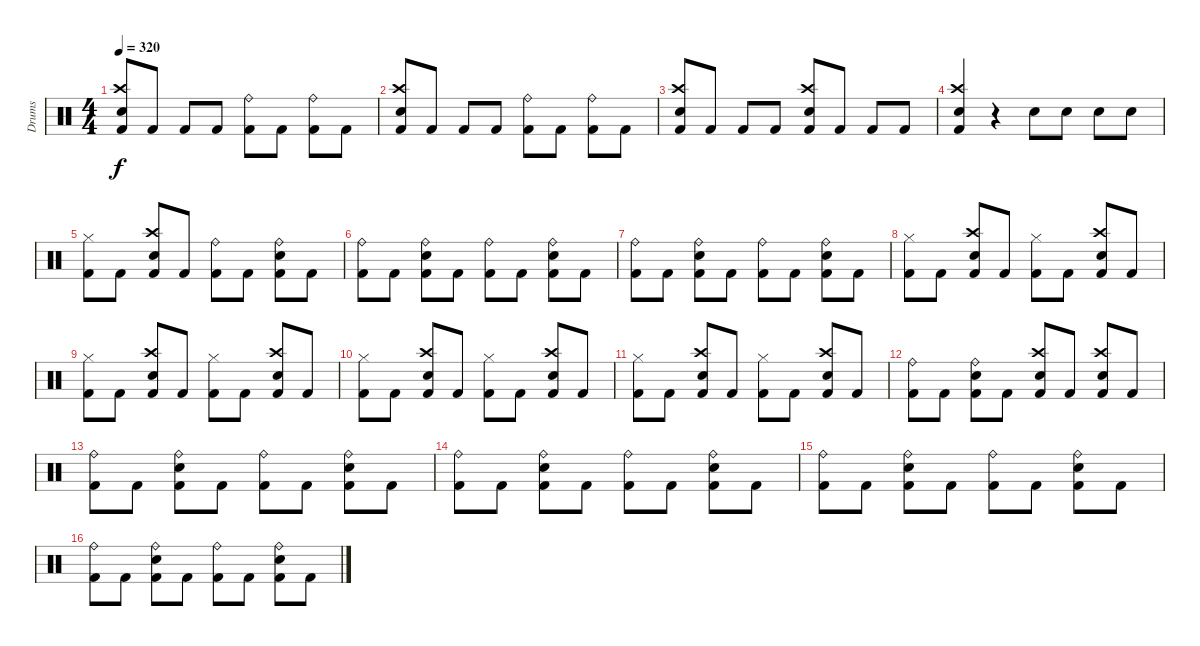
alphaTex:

\track ("Drums" "Drums") {instrument percussion}
\staff {score}
\articulation defaults
\ts (4 4)
\tempo 320
\clef neutral
\ks c
("Kick (hit) 2" "Crash high (hit)" "Snare (hit) 2").8{dy f} "Kick (hit) 2".8 "Kick (hit) 2".8 "Kick (hit) 2".8 ("Kick (hit) 2" "Ride (bell)").8 "Kick (hit) 2".8 ("Ride (bell)" "Kick (hit) 2").8 "Kick (hit) 2".8 |
("Kick (hit) 2" "Snare (hit) 2" "Crash high (hit)").8 "Kick (hit) 2".8 "Kick (hit) 2".8 "Kick (hit) 2".8 ("Kick (hit) 2" "Ride (bell)").8 "Kick (hit) 2".8 ("Ride (bell)" "Kick (hit) 2").8 "Kick (hit) 2".8 |
("Kick (hit) 2" "Crash high (hit)" "Snare (hit) 2").8 "Kick (hit) 2".8 "Kick (hit) 2".8 "Kick (hit) 2".8 ("Kick (hit) 2" "Crash high (hit)" "Snare (hit) 2").8 "Kick (hit) 2".8 "Kick (hit) 2".8 "Kick (hit) 2".8 |
("Kick (hit) 2" "Crash high (hit)" "Snare (hit) 2").4 r.4 "Snare (hit) 2".8 "Snare (hit) 2".8 "Snare (hit) 2".8 "Snare (hit) 2".8 |
("Hi-Hat (closed)" "Kick (hit) 2").8 "Kick (hit) 2".8 ("Kick (hit) 2" "Crash high (hit)" "Snare (hit) 2").8 "Kick (hit) 2".8 ("Kick (hit) 2" "Ride (bell)").8 "Kick (hit) 2".8 ("Snare (hit) 2" "Kick (hit) 2" "Ride (bell)").8 "Kick (hit) 2".8 |
("Ride (bell)" "Kick (hit) 2").8 "Kick (hit) 2".8 ("Ride (bell)" "Snare (hit) 2" "Kick (hit) 2").8 "Kick (hit) 2".8 ("Kick (hit) 2" "Ride (bell)").8 "Kick (hit) 2".8 ("Ride (bell)" "Snare (hit) 2" "Kick (hit) 2").8 "Kick (hit) 2".8 |
("Ride (bell)" "Kick (hit) 2").8 "Kick (hit) 2".8 ("Snare (hit) 2" "Ride (bell)" "Kick (hit) 2").8 "Kick (hit) 2".8 ("Kick (hit) 2" "Ride (bell)").8 "Kick (hit) 2".8 ("Ride (bell)" "Kick (hit) 2" "Snare (hit) 2").8 "Kick (hit) 2".8 |
("Kick (hit) 2" "Hi-Hat (closed)").8 "Kick (hit) 2".8 ("Snare (hit) 2" "Kick (hit) 2" "Crash high (hit)").8 "Kick (hit) 2".8 ("Hi-Hat (closed)" "Kick (hit) 2").8 "Kick (hit) 2".8 ("Snare (hit) 2" "Kick (hit) 2" "Crash high (hit)").8 "Kick (hit) 2".8 |
("Kick (hit) 2" "Hi-Hat (closed)").8 "Kick (hit) 2".8 ("Snare (hit) 2" "Kick (hit) 2" "Crash high (hit)").8 "Kick (hit) 2".8 ("Kick (hit) 2" "Hi-Hat (closed)").8 "Kick (hit) 2".8 ("Kick (hit) 2" "Snare (hit) 2" "Crash high (hit)").8 "Kick (hit) 2".8 |
("Kick (hit) 2" "Hi-Hat (closed)").8 "Kick (hit) 2".8 ("Crash high (hit)" "Snare (hit) 2" "Kick (hit) 2").8 "Kick (hit) 2".8 ("Hi-Hat (closed)" "Kick (hit) 2").8 "Kick (hit) 2".8 ("Kick (hit) 2" "Snare (hit) 2" "Crash high (hit)").8 "Kick (hit) 2".8 |
("Kick (hit) 2" "Hi-Hat (closed)").8 "Kick (hit) 2".8 ("Crash high (hit)" "Kick (hit) 2" "Snare (hit) 2").8 "Kick (hit) 2".8 ("Hi-Hat (closed)" "Kick (hit) 2").8 "Kick (hit) 2".8 ("Kick (hit) 2" "Snare (hit) 2" "Crash high (hit)").8 "Kick (hit) 2".8 |
("Kick (hit) 2" "Ride (bell)").8 "Kick (hit) 2".8 ("Snare (hit) 2" "Kick (hit) 2" "Ride (bell)").8 "Kick (hit) 2".8 ("Kick (hit) 2" "Crash high (hit)" "Snare (hit) 2").8 "Kick (hit) 2".8 ("Kick (hit) 2" "Crash high (hit)" "Snare (hit) 2").8 "Kick (hit) 2".8 |
("Ride (bell)" "Kick (hit) 2").8 "Kick (hit) 2".8 ("Ride (bell)" "Kick (hit) 2" "Snare (hit) 2").8 "Kick (hit) 2".8 ("Ride (bell)" "Kick (hit) 2").8 "Kick (hit) 2".8 ("Kick (hit) 2" "Snare (hit) 2" "Ride (bell)").8 "Kick (hit) 2".8 |
("Ride (bell)" "Kick (hit) 2").8 "Kick (hit) 2".8 ("Snare (hit) 2" "Kick (hit) 2" "Ride (bell)").8 "Kick (hit) 2".8 ("Ride (bell)" "Kick (hit) 2").8 "Kick (hit) 2".8 ("Snare (hit) 2" "Kick (hit) 2" "Ride (bell)").8 "Kick (hit) 2".8 |
("Ride (bell)" "Kick (hit) 2").8 "Kick (hit) 2".8 ("Ride (bell)" "Snare (hit) 2" "Kick (hit) 2").8 "Kick (hit) 2".8 ("Kick (hit) 2" "Ride (bell)").8 "Kick (hit) 2".8 ("Kick (hit) 2" "Snare (hit) 2" "Ride (bell)").8 "Kick (hit) 2".8 |
("Ride (bell)" "Kick (hit) 2").8 "Kick (hit) 2".8 ("Ride (bell)" "Snare (hit) 2" "Kick (hit) 2").8 "Kick (hit) 2".8 ("Ride (bell)" "Kick (hit) 2").8 "Kick (hit) 2".8 ("Kick (hit) 2" "Snare (hit) 2" "Ride (bell)").8 "Kick (hit) 2".8
